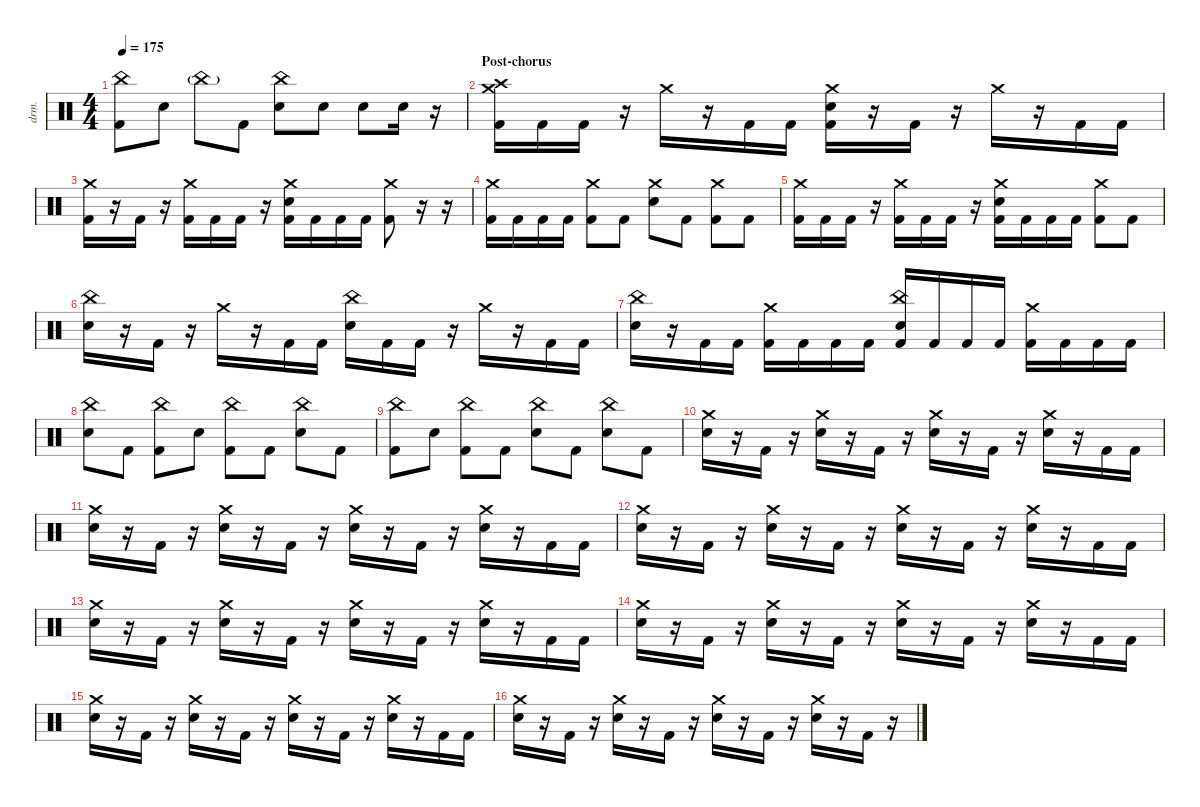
\defaultSystemsLayout 4
\hideDynamics
\bracketExtendMode nobrackets
\track ("Drums - Mario" "drm.") {instrument percussion}
\staff {score}
\articulation defaults
\ts (4 4)
\tempo 175
\clef neutral
\ks c
("Kick (hit) 2" "China (hit)").8{dy ff} "Snare (hit) 2".8 "China (hit)"{g}.8 "Kick (hit) 2".8 ("Snare (hit) 2" "China (hit)").8 "Snare (hit) 2".8 "Snare (hit) 2".8 "Snare (hit) 2".16 r.16 |
\section ("" "Post-chorus")
("Kick (hit) 2" "Crash medium (hit)" "Crash high (hit)").16 "Kick (hit) 2".16 "Kick (hit) 2".16 r.16 "Crash medium (hit)".16 r.16 "Kick (hit) 2".16 "Kick (hit) 2".16 ("Kick (hit) 2" "Snare (hit) 2" "Crash medium (hit)").16 r.16 "Kick (hit) 2".16 r.16 "Crash medium (hit)".16 r.16 "Kick (hit) 2".16 "Kick (hit) 2".16 |
("Kick (hit) 2" "Crash medium (hit)").16 r.16 "Kick (hit) 2".16 r.16 ("Kick (hit) 2" "Crash medium (hit)").16 "Kick (hit) 2".16 "Kick (hit) 2".16 r.16 ("Kick (hit) 2" "Snare (hit) 2" "Crash medium (hit)").16 "Kick (hit) 2".16 "Kick (hit) 2".16 "Kick (hit) 2".16 ("Kick (hit) 2" "Crash medium (hit)").8 r.16 r.16 |
("Kick (hit) 2" "Crash medium (hit)").16 "Kick (hit) 2".16 "Kick (hit) 2".16 "Kick (hit) 2".16 ("Kick (hit) 2" "Crash medium (hit)").8 "Kick (hit) 2".8 ("Snare (hit) 2" "Crash medium (hit)").8 "Kick (hit) 2".8 ("Crash medium (hit)" "Kick (hit) 2").8 "Kick (hit) 2".8 |
("Kick (hit) 2" "Crash medium (hit)").16 "Kick (hit) 2".16 "Kick (hit) 2".16 r.16 ("Kick (hit) 2" "Crash medium (hit)").16 "Kick (hit) 2".16 "Kick (hit) 2".16 r.16 ("Kick (hit) 2" "Snare (hit) 2" "Crash medium (hit)").16 "Kick (hit) 2".16 "Kick (hit) 2".16 "Kick (hit) 2".16 ("Kick (hit) 2" "Crash medium (hit)").8 "Kick (hit) 2".8 |
("Snare (hit) 2" "China (hit)").16 r.16 "Kick (hit) 2".16 r.16 "Crash medium (hit)".16 r.16 "Kick (hit) 2".16 "Kick (hit) 2".16 ("Snare (hit) 2" "China (hit)").16 "Kick (hit) 2".16 "Kick (hit) 2".16 r.16 "Crash medium (hit)".16 r.16 "Kick (hit) 2".16 "Kick (hit) 2".16 |
("Snare (hit) 2" "China (hit)").16 r.16 "Kick (hit) 2".16 "Kick (hit) 2".16 ("Crash medium (hit)" "Kick (hit) 2").16 "Kick (hit) 2".16 "Kick (hit) 2".16 "Kick (hit) 2".16 ("Snare (hit) 2" "Kick (hit) 2" "China (hit)").16 "Kick (hit) 2".16 "Kick (hit) 2".16 "Kick (hit) 2".16 ("Crash medium (hit)" "Kick (hit) 2").16 "Kick (hit) 2".16 "Kick (hit) 2".16 "Kick (hit) 2".16 |
("Snare (hit) 2" "China (hit)").8{beam Down} "Kick (hit) 2".8{beam Down} ("Kick (hit) 2" "China (hit)").8{beam Down} "Snare (hit) 2".8{beam Down} ("Kick (hit) 2" "China (hit)").8{beam Down} "Kick (hit) 2".8{beam Down} ("Snare (hit) 2" "China (hit)").8{beam Down} "Kick (hit) 2".8{beam Down} |
("China (hit)" "Kick (hit) 2").8{beam Down} "Snare (hit) 2".8{beam Down} ("Kick (hit) 2" "China (hit)").8{beam Down} "Kick (hit) 2".8{beam Down} ("China (hit)" "Snare (hit) 2").8{beam Down} "Kick (hit) 2".8{beam Down} ("Snare (hit) 2" "China (hit)").8{beam Down} "Kick (hit) 2".8{beam Down} |
("Snare (hit) 2" "Crash medium (hit)").16{beam Down} r.16{beam Down} "Kick (hit) 2".16{beam Down} r.16{beam Down} ("Crash medium (hit)" "Snare (hit) 2").16{beam Down} r.16{beam Down} "Kick (hit) 2".16{beam Down} r.16{beam Down} ("Snare (hit) 2" "Crash medium (hit)").16{beam Down} r.16{beam Down} "Kick (hit) 2".16{beam Down} r.16{beam Down} ("Crash medium (hit)" "Snare (hit) 2").16{beam Down} r.16{beam Down} "Kick (hit) 2".16{beam Down} "Kick (hit) 2".16{beam Down} |
("Snare (hit) 2" "Crash medium (hit)").16{beam Down} r.16{beam Down} "Kick (hit) 2".16{beam Down} r.16{beam Down} ("Crash medium (hit)" "Snare (hit) 2").16{beam Down} r.16{beam Down} "Kick (hit) 2".16{beam Down} r.16{beam Down} ("Snare (hit) 2" "Crash medium (hit)").16{beam Down} r.16{beam Down} "Kick (hit) 2".16{beam Down} r.16{beam Down} ("Crash medium (hit)" "Snare (hit) 2").16{beam Down} r.16{beam Down} "Kick (hit) 2".16{beam Down} "Kick (hit) 2".16{beam Down} |
("Snare (hit) 2" "Crash medium (hit)").16{beam Down} r.16{beam Down} "Kick (hit) 2".16{beam Down} r.16{beam Down} ("Crash medium (hit)" "Snare (hit) 2").16{beam Down} r.16{beam Down} "Kick (hit) 2".16{beam Down} r.16{beam Down} ("Snare (hit) 2" "Crash medium (hit)").16{beam Down} r.16{beam Down} "Kick (hit) 2".16{beam Down} r.16{beam Down} ("Crash medium (hit)" "Snare (hit) 2").16{beam Down} r.16{beam Down} "Kick (hit) 2".16{beam Down} "Kick (hit) 2".16{beam Down} |
("Snare (hit) 2" "Crash medium (hit)").16{beam Down} r.16{beam Down} "Kick (hit) 2".16{beam Down} r.16{beam Down} ("Crash medium (hit)" "Snare (hit) 2").16{beam Down} r.16{beam Down} "Kick (hit) 2".16{beam Down} r.16{beam Down} ("Snare (hit) 2" "Crash medium (hit)").16{beam Down} r.16{beam Down} "Kick (hit) 2".16{beam Down} r.16{beam Down} ("Crash medium (hit)" "Snare (hit) 2").16{beam Down} r.16{beam Down} "Kick (hit) 2".16{beam Down} "Kick (hit) 2".16{beam Down} |
("Snare (hit) 2" "Crash medium (hit)").16{beam Down} r.16{beam Down} "Kick (hit) 2".16{beam Down} r.16{beam Down} ("Crash medium (hit)" "Snare (hit) 2").16{beam Down} r.16{beam Down} "Kick (hit) 2".16{beam Down} r.16{beam Down} ("Snare (hit) 2" "Crash medium (hit)").16{beam Down} r.16{beam Down} "Kick (hit) 2".16{beam Down} r.16{beam Down} ("Crash medium (hit)" "Snare (hit) 2").16{beam Down} r.16{beam Down} "Kick (hit) 2".16{beam Down} "Kick (hit) 2".16{beam Down} |
("Snare (hit) 2" "Crash medium (hit)").16{beam Down} r.16{beam Down} "Kick (hit) 2".16{beam Down} r.16{beam Down} ("Crash medium (hit)" "Snare (hit) 2").16{beam Down} r.16{beam Down} "Kick (hit) 2".16{beam Down} r.16{beam Down} ("Snare (hit) 2" "Crash medium (hit)").16{beam Down} r.16{beam Down} "Kick (hit) 2".16{beam Down} r.16{beam Down} ("Crash medium (hit)" "Snare (hit) 2").16{beam Down} r.16{beam Down} "Kick (hit) 2".16{beam Down} "Kick (hit) 2".16{beam Down} |
("Snare (hit) 2" "Crash medium (hit)").16{beam Down} r.16{beam Down} "Kick (hit) 2".16{beam Down} r.16{beam Down} ("Crash medium (hit)" "Snare (hit) 2").16{beam Down} r.16{beam Down} "Kick (hit) 2".16{beam Down} r.16{beam Down} ("Snare (hit) 2" "Crash medium (hit)").16{beam Down} r.16{beam Down} "Kick (hit) 2".16{beam Down} r.16{beam Down} ("Crash medium (hit)" "Snare (hit) 2").16{beam Down} r.16{beam Down} "Kick (hit) 2".16{beam Down} r.16{beam Down}
